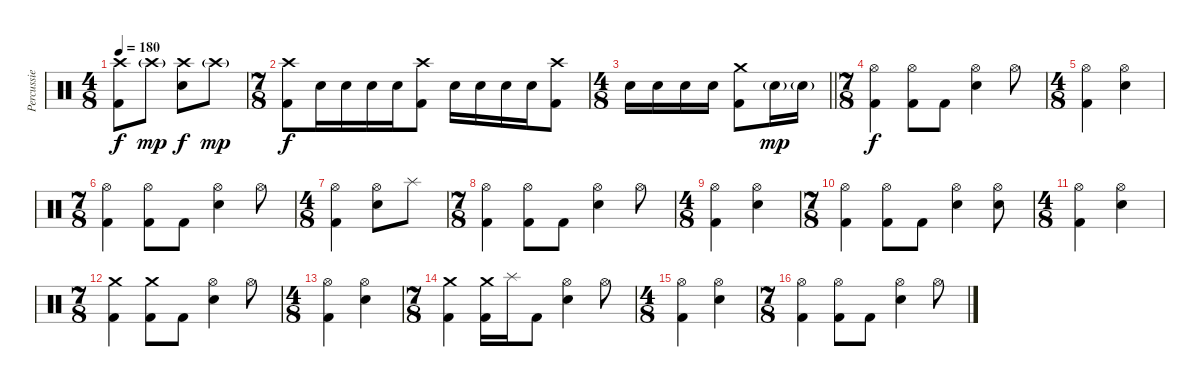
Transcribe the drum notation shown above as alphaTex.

\track ("Percussie" "Percussie") {instrument percussion}
\staff {score}
\articulation defaults
\ts (4 8)
\tempo 180
\clef neutral
\ks c
("Crash high (hit)" "Kick (hit) 2").8{dy f} "Crash high (hit)"{g}.8{dy mp} ("Crash high (hit)" "Snare (hit) 2").8{dy f} "Crash high (hit)"{g}.8{dy mp} |
\ts (7 8)
("Crash high (hit)" "Kick (hit) 2").8{dy f} "Snare (hit) 2".16 "Snare (hit) 2".16 "Snare (hit) 2".16 "Snare (hit) 2".16 ("Crash high (hit)" "Kick (hit) 2").8 "Snare (hit) 2".16 "Snare (hit) 2".16 "Snare (hit) 2".16 "Snare (hit) 2".16 ("Crash high (hit)" "Kick (hit) 2").8 |
\ts (4 8)
\barLineRight lightlight "Snare (hit) 2".16 "Snare (hit) 2".16 "Snare (hit) 2".16 "Snare (hit) 2".16
("Crash medium (hit)" "Kick (hit) 2").8 "Snare (hit) 2"{g}.16{dy mp} "Snare (hit) 2"{g}.16 |
\ts (7 8)
("Hi-Hat (open)" "Kick (hit) 2").4{dy f} ("Hi-Hat (open)" "Kick (hit) 2").8 "Kick (hit) 2".8 ("Hi-Hat (open)" "Snare (hit) 2").4 "Hi-Hat (open)".8 |
\ts (4 8)
("Hi-Hat (open)" "Kick (hit) 2").4 ("Hi-Hat (open)" "Snare (hit) 2").4 |
\ts (7 8)
("Hi-Hat (open)" "Kick (hit) 2").4 ("Hi-Hat (open)" "Kick (hit) 2").8 "Kick (hit) 2".8 ("Hi-Hat (open)" "Snare (hit) 2").4 "Hi-Hat (open)".8 |
\ts (4 8)
("Hi-Hat (open)" "Kick (hit) 2").4 ("Hi-Hat (open)" "Snare (hit) 2").8 "Splash (hit)".8 |
\ts (7 8)
("Hi-Hat (open)" "Kick (hit) 2").4 ("Hi-Hat (open)" "Kick (hit) 2").8 "Kick (hit) 2".8 ("Hi-Hat (open)" "Snare (hit) 2").4 "Hi-Hat (open)".8 |
\ts (4 8)
("Hi-Hat (open)" "Kick (hit) 2").4 ("Hi-Hat (open)" "Snare (hit) 2").4 |
\ts (7 8)
("Hi-Hat (open)" "Kick (hit) 2").4 ("Hi-Hat (open)" "Kick (hit) 2").8 "Kick (hit) 2".8 ("Hi-Hat (open)" "Snare (hit) 2").4 ("Hi-Hat (open)" "Snare (hit) 2").8 |
\ts (4 8)
("Hi-Hat (open)" "Kick (hit) 2").4 ("Hi-Hat (open)" "Snare (hit) 2").4 |
\ts (7 8)
("Crash medium (hit)" "Kick (hit) 2").4 ("Crash medium (hit)" "Kick (hit) 2").8 "Kick (hit) 2".8 ("Hi-Hat (open)" "Snare (hit) 2").4 "Hi-Hat (open)".8 |
\ts (4 8)
("Hi-Hat (open)" "Kick (hit) 2").4 ("Hi-Hat (open)" "Snare (hit) 2").4 |
\ts (7 8)
("Crash medium (hit)" "Kick (hit) 2").4 ("Crash medium (hit)" "Kick (hit) 2").16 "Splash (hit)".16 "Kick (hit) 2".8 ("Hi-Hat (open)" "Snare (hit) 2").4 "Hi-Hat (open)".8 |
\ts (4 8)
("Hi-Hat (open)" "Kick (hit) 2").4 ("Hi-Hat (open)" "Snare (hit) 2").4 |
\ts (7 8)
("Hi-Hat (open)" "Kick (hit) 2").4 ("Hi-Hat (open)" "Kick (hit) 2").8 "Kick (hit) 2".8 ("Hi-Hat (open)" "Snare (hit) 2").4 "Hi-Hat (open)".8
